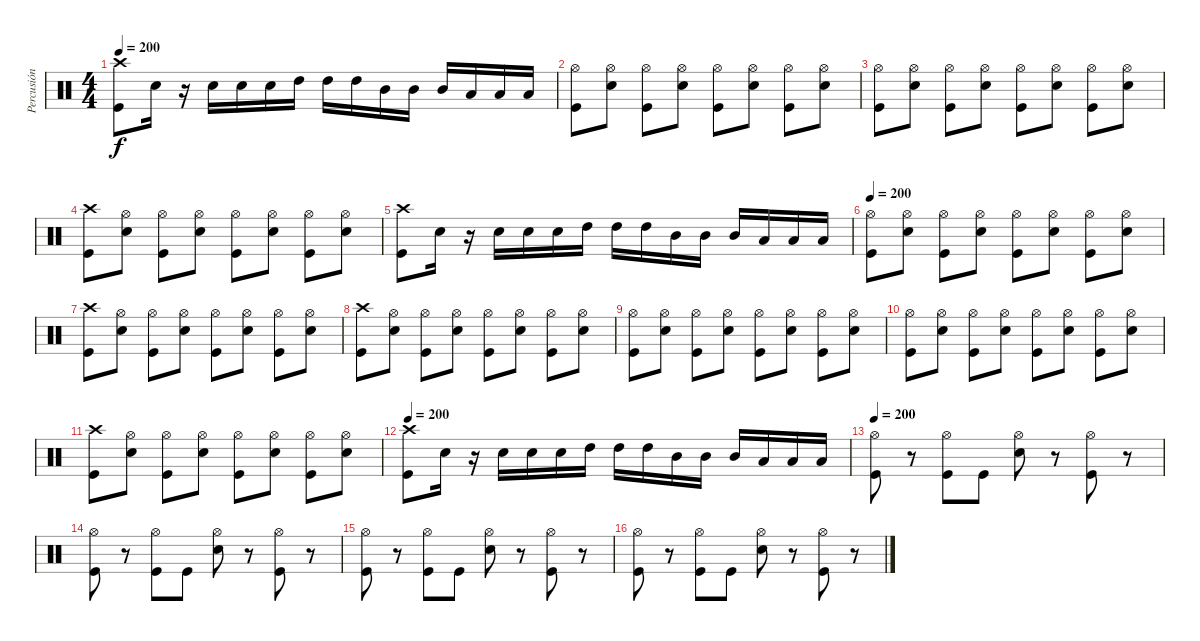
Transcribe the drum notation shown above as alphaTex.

\track ("Percusión" "Percusión") {instrument percussion}
\staff {score}
\articulation defaults
\ts (4 4)
\tempo 200
\clef neutral
\ks c
("Crash high (hit)" "Kick (hit)").8{dy f} "Snare (hit) 2".16 r.16 "Snare (hit) 2".16 "Snare (hit) 2".16 "Snare (hit) 2".16 "High Tom (hit)".16 "High Tom (hit)".16 "High Tom (hit)".16 "Mid Tom (hit)".16 "Mid Tom (hit)".16 "Mid Tom (hit)".16 "Low Tom (hit)".16 "Low Tom (hit)".16 "Low Tom (hit)".16 |
("Hi-Hat (open)" "Kick (hit)").8 ("Hi-Hat (open)" "Snare (hit) 2").8 ("Hi-Hat (open)" "Kick (hit)").8 ("Hi-Hat (open)" "Snare (hit) 2").8 ("Hi-Hat (open)" "Kick (hit)").8 ("Hi-Hat (open)" "Snare (hit) 2").8 ("Hi-Hat (open)" "Kick (hit)").8 ("Hi-Hat (open)" "Snare (hit) 2").8 |
("Hi-Hat (open)" "Kick (hit)").8 ("Hi-Hat (open)" "Snare (hit) 2").8 ("Hi-Hat (open)" "Kick (hit)").8 ("Hi-Hat (open)" "Snare (hit) 2").8 ("Hi-Hat (open)" "Kick (hit)").8 ("Hi-Hat (open)" "Snare (hit) 2").8 ("Hi-Hat (open)" "Kick (hit)").8 ("Hi-Hat (open)" "Snare (hit) 2").8 |
("Crash high (hit)" "Kick (hit)").8 ("Hi-Hat (open)" "Snare (hit) 2").8 ("Hi-Hat (open)" "Kick (hit)").8 ("Hi-Hat (open)" "Snare (hit) 2").8 ("Hi-Hat (open)" "Kick (hit)").8 ("Hi-Hat (open)" "Snare (hit) 2").8 ("Hi-Hat (open)" "Kick (hit)").8 ("Hi-Hat (open)" "Snare (hit) 2").8 |
("Crash high (hit)" "Kick (hit)").8 "Snare (hit) 2".16 r.16 "Snare (hit) 2".16 "Snare (hit) 2".16 "Snare (hit) 2".16 "High Tom (hit)".16 "High Tom (hit)".16 "High Tom (hit)".16 "Mid Tom (hit)".16 "Mid Tom (hit)".16 "Mid Tom (hit)".16 "Low Tom (hit)".16 "Low Tom (hit)".16 "Low Tom (hit)".16 |
\tempo 200
("Hi-Hat (open)" "Kick (hit)").8 ("Hi-Hat (open)" "Snare (hit) 2").8 ("Hi-Hat (open)" "Kick (hit)").8 ("Hi-Hat (open)" "Snare (hit) 2").8 ("Hi-Hat (open)" "Kick (hit)").8 ("Hi-Hat (open)" "Snare (hit) 2").8 ("Hi-Hat (open)" "Kick (hit)").8 ("Hi-Hat (open)" "Snare (hit) 2").8 |
("Crash high (hit)" "Kick (hit)").8 ("Hi-Hat (open)" "Snare (hit) 2").8 ("Hi-Hat (open)" "Kick (hit)").8 ("Hi-Hat (open)" "Snare (hit) 2").8 ("Hi-Hat (open)" "Kick (hit)").8 ("Hi-Hat (open)" "Snare (hit) 2").8 ("Hi-Hat (open)" "Kick (hit)").8 ("Hi-Hat (open)" "Snare (hit) 2").8 |
("Crash high (hit)" "Kick (hit)").8 ("Hi-Hat (open)" "Snare (hit) 2").8 ("Hi-Hat (open)" "Kick (hit)").8 ("Hi-Hat (open)" "Snare (hit) 2").8 ("Hi-Hat (open)" "Kick (hit)").8 ("Hi-Hat (open)" "Snare (hit) 2").8 ("Hi-Hat (open)" "Kick (hit)").8 ("Hi-Hat (open)" "Snare (hit) 2").8 |
("Hi-Hat (open)" "Kick (hit)").8 ("Hi-Hat (open)" "Snare (hit) 2").8 ("Hi-Hat (open)" "Kick (hit)").8 ("Hi-Hat (open)" "Snare (hit) 2").8 ("Hi-Hat (open)" "Kick (hit)").8 ("Hi-Hat (open)" "Snare (hit) 2").8 ("Hi-Hat (open)" "Kick (hit)").8 ("Hi-Hat (open)" "Snare (hit) 2").8 |
("Hi-Hat (open)" "Kick (hit)").8 ("Hi-Hat (open)" "Snare (hit) 2").8 ("Hi-Hat (open)" "Kick (hit)").8 ("Hi-Hat (open)" "Snare (hit) 2").8 ("Hi-Hat (open)" "Kick (hit)").8 ("Hi-Hat (open)" "Snare (hit) 2").8 ("Hi-Hat (open)" "Kick (hit)").8 ("Hi-Hat (open)" "Snare (hit) 2").8 |
("Crash high (hit)" "Kick (hit)").8 ("Hi-Hat (open)" "Snare (hit) 2").8 ("Hi-Hat (open)" "Kick (hit)").8 ("Hi-Hat (open)" "Snare (hit) 2").8 ("Hi-Hat (open)" "Kick (hit)").8 ("Hi-Hat (open)" "Snare (hit) 2").8 ("Hi-Hat (open)" "Kick (hit)").8 ("Hi-Hat (open)" "Snare (hit) 2").8 |
\tempo 200
("Crash high (hit)" "Kick (hit)").8 "Snare (hit) 2".16 r.16 "Snare (hit) 2".16 "Snare (hit) 2".16 "Snare (hit) 2".16 "High Tom (hit)".16 "High Tom (hit)".16 "High Tom (hit)".16 "Mid Tom (hit)".16 "Mid Tom (hit)".16 "Mid Tom (hit)".16 "Low Tom (hit)".16 "Low Tom (hit)".16 "Low Tom (hit)".16 |
\tempo 200
("Hi-Hat (open)" "Kick (hit)").8 r.8 ("Hi-Hat (open)" "Kick (hit)").8 "Kick (hit)".8 ("Hi-Hat (open)" "Snare (hit) 2").8 r.8 ("Hi-Hat (open)" "Kick (hit)").8 r.8 |
("Hi-Hat (open)" "Kick (hit)").8 r.8 ("Hi-Hat (open)" "Kick (hit)").8 "Kick (hit)".8 ("Hi-Hat (open)" "Snare (hit) 2").8 r.8 ("Hi-Hat (open)" "Kick (hit)").8 r.8 |
("Hi-Hat (open)" "Kick (hit)").8 r.8 ("Hi-Hat (open)" "Kick (hit)").8 "Kick (hit)".8 ("Hi-Hat (open)" "Snare (hit) 2").8 r.8 ("Hi-Hat (open)" "Kick (hit)").8 r.8 |
("Hi-Hat (open)" "Kick (hit)").8 r.8 ("Hi-Hat (open)" "Kick (hit)").8 "Kick (hit)".8 ("Hi-Hat (open)" "Snare (hit) 2").8 r.8 ("Hi-Hat (open)" "Kick (hit)").8 r.8
